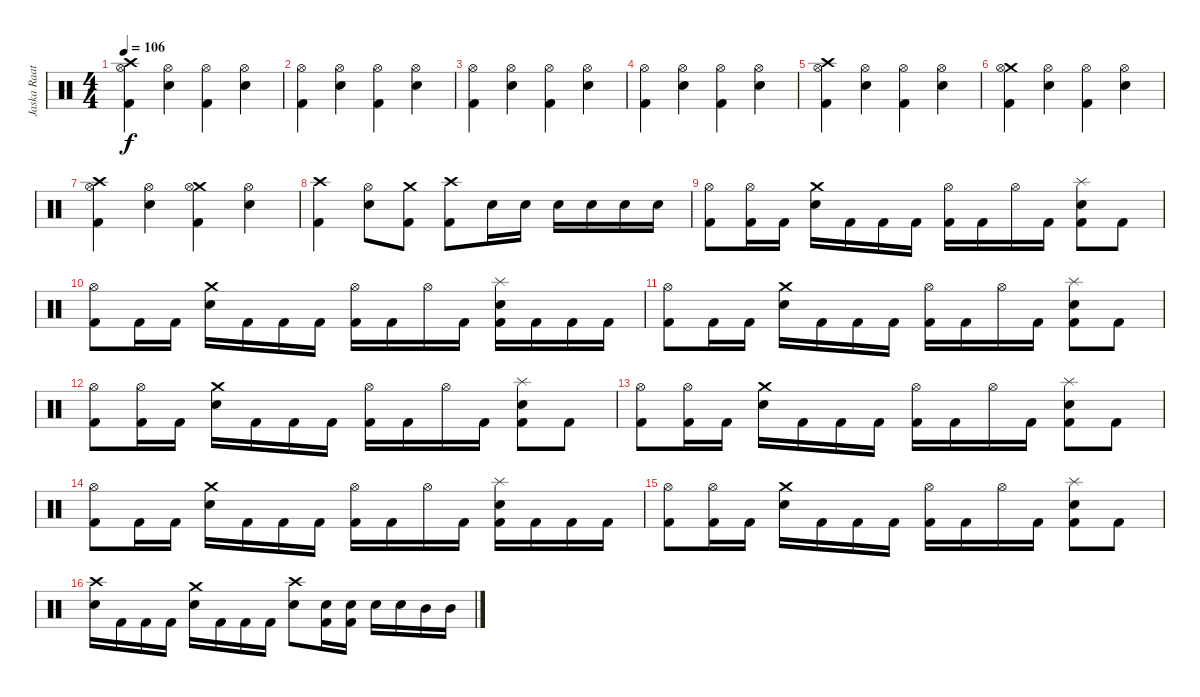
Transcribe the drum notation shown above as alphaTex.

\track ("Jaska Raatikainen" "Jaska Raat") {instrument percussion}
\staff {score}
\articulation defaults
\ts (4 4)
\tempo 106
\clef neutral
\ks c
("Kick (hit) 2" "Crash high (hit)" "Hi-Hat (open)").4{dy f} ("Hi-Hat (open)" "Snare (hit) 2").4 ("Kick (hit) 2" "Hi-Hat (open)").4 ("Hi-Hat (open)" "Snare (hit) 2").4 |
("Kick (hit) 2" "Hi-Hat (open)").4 ("Hi-Hat (open)" "Snare (hit) 2").4 ("Kick (hit) 2" "Hi-Hat (open)").4 ("Hi-Hat (open)" "Snare (hit) 2").4 |
("Kick (hit) 2" "Hi-Hat (open)").4 ("Hi-Hat (open)" "Snare (hit) 2").4 ("Kick (hit) 2" "Hi-Hat (open)").4 ("Hi-Hat (open)" "Snare (hit) 2").4 |
("Kick (hit) 2" "Hi-Hat (open)").4 ("Hi-Hat (open)" "Snare (hit) 2").4 ("Kick (hit) 2" "Hi-Hat (open)").4 ("Hi-Hat (open)" "Snare (hit) 2").4 |
("Kick (hit) 2" "Crash high (hit)" "Hi-Hat (open)").4 ("Hi-Hat (open)" "Snare (hit) 2").4 ("Kick (hit) 2" "Hi-Hat (open)").4 ("Hi-Hat (open)" "Snare (hit) 2").4 |
("Kick (hit) 2" "Crash medium (hit)" "Hi-Hat (open)").4 ("Hi-Hat (open)" "Snare (hit) 2").4 ("Kick (hit) 2" "Hi-Hat (open)").4 ("Hi-Hat (open)" "Snare (hit) 2").4 |
("Kick (hit) 2" "Crash high (hit)" "Hi-Hat (open)").4 ("Hi-Hat (open)" "Snare (hit) 2").4 ("Kick (hit) 2" "Crash medium (hit)" "Hi-Hat (open)").4 ("Hi-Hat (open)" "Snare (hit) 2").4 |
("Kick (hit) 2" "Crash high (hit)").4 ("Hi-Hat (open)" "Snare (hit) 2").8 ("Kick (hit) 2" "Crash medium (hit)").8 ("Kick (hit) 2" "Crash high (hit)").8 "Snare (hit) 2".16 "Snare (hit) 2".16 "Snare (hit) 2".16 "Snare (hit) 2".16 "Snare (hit) 2".16 "Snare (hit) 2".16 |
("Kick (hit) 2" "Hi-Hat (open)").8 ("Kick (hit) 2" "Hi-Hat (open)").16 "Kick (hit) 2".16 ("Crash medium (hit)" "Snare (hit) 2").16 "Kick (hit) 2".16 "Kick (hit) 2".16 "Kick (hit) 2".16 ("Kick (hit) 2" "Hi-Hat (open)").16 "Kick (hit) 2".16 "Hi-Hat (open)".16 "Kick (hit) 2".16 ("Kick (hit) 2" "Splash (hit)" "Snare (hit) 2").8 "Kick (hit) 2".8 |
("Kick (hit) 2" "Hi-Hat (open)").8 "Kick (hit) 2".16 "Kick (hit) 2".16 ("Crash medium (hit)" "Snare (hit) 2").16 "Kick (hit) 2".16 "Kick (hit) 2".16 "Kick (hit) 2".16 ("Kick (hit) 2" "Hi-Hat (open)").16 "Kick (hit) 2".16 "Hi-Hat (open)".16 "Kick (hit) 2".16 ("Kick (hit) 2" "Splash (hit)" "Snare (hit) 2").16 "Kick (hit) 2".16 "Kick (hit) 2".16 "Kick (hit) 2".16 |
("Kick (hit) 2" "Hi-Hat (open)").8 "Kick (hit) 2".16 "Kick (hit) 2".16 ("Crash medium (hit)" "Snare (hit) 2").16 "Kick (hit) 2".16 "Kick (hit) 2".16 "Kick (hit) 2".16 ("Kick (hit) 2" "Hi-Hat (open)").16 "Kick (hit) 2".16 "Hi-Hat (open)".16 "Kick (hit) 2".16 ("Kick (hit) 2" "Splash (hit)" "Snare (hit) 2").8 "Kick (hit) 2".8 |
("Kick (hit) 2" "Hi-Hat (open)").8 ("Kick (hit) 2" "Hi-Hat (open)").16 "Kick (hit) 2".16 ("Crash medium (hit)" "Snare (hit) 2").16 "Kick (hit) 2".16 "Kick (hit) 2".16 "Kick (hit) 2".16 ("Kick (hit) 2" "Hi-Hat (open)").16 "Kick (hit) 2".16 "Hi-Hat (open)".16 "Kick (hit) 2".16 ("Kick (hit) 2" "Splash (hit)" "Snare (hit) 2").8 "Kick (hit) 2".8 |
("Kick (hit) 2" "Hi-Hat (open)").8 ("Kick (hit) 2" "Hi-Hat (open)").16 "Kick (hit) 2".16 ("Crash medium (hit)" "Snare (hit) 2").16 "Kick (hit) 2".16 "Kick (hit) 2".16 "Kick (hit) 2".16 ("Kick (hit) 2" "Hi-Hat (open)").16 "Kick (hit) 2".16 "Hi-Hat (open)".16 "Kick (hit) 2".16 ("Kick (hit) 2" "Splash (hit)" "Snare (hit) 2").8 "Kick (hit) 2".8 |
("Kick (hit) 2" "Hi-Hat (open)").8 "Kick (hit) 2".16 "Kick (hit) 2".16 ("Crash medium (hit)" "Snare (hit) 2").16 "Kick (hit) 2".16 "Kick (hit) 2".16 "Kick (hit) 2".16 ("Kick (hit) 2" "Hi-Hat (open)").16 "Kick (hit) 2".16 "Hi-Hat (open)".16 "Kick (hit) 2".16 ("Kick (hit) 2" "Splash (hit)" "Snare (hit) 2").16 "Kick (hit) 2".16 "Kick (hit) 2".16 "Kick (hit) 2".16 |
("Kick (hit) 2" "Hi-Hat (open)").8 ("Kick (hit) 2" "Hi-Hat (open)").16 "Kick (hit) 2".16 ("Crash medium (hit)" "Snare (hit) 2").16 "Kick (hit) 2".16 "Kick (hit) 2".16 "Kick (hit) 2".16 ("Kick (hit) 2" "Hi-Hat (open)").16 "Kick (hit) 2".16 "Hi-Hat (open)".16 "Kick (hit) 2".16 ("Kick (hit) 2" "Splash (hit)" "Snare (hit) 2").8 "Kick (hit) 2".8 |
("Crash high (hit)" "Snare (hit) 2").16 "Kick (hit) 2".16 "Kick (hit) 2".16 "Kick (hit) 2".16 ("Crash medium (hit)" "Snare (hit) 2").16 "Kick (hit) 2".16 "Kick (hit) 2".16 "Kick (hit) 2".16 ("Crash high (hit)" "Snare (hit) 2").8 ("Kick (hit) 2" "Snare (hit) 2").16 ("Kick (hit) 2" "Snare (hit) 2").16 "Snare (hit) 2".16 "Snare (hit) 2".16 "Mid Tom (hit)".16 "Mid Tom (hit)".16
